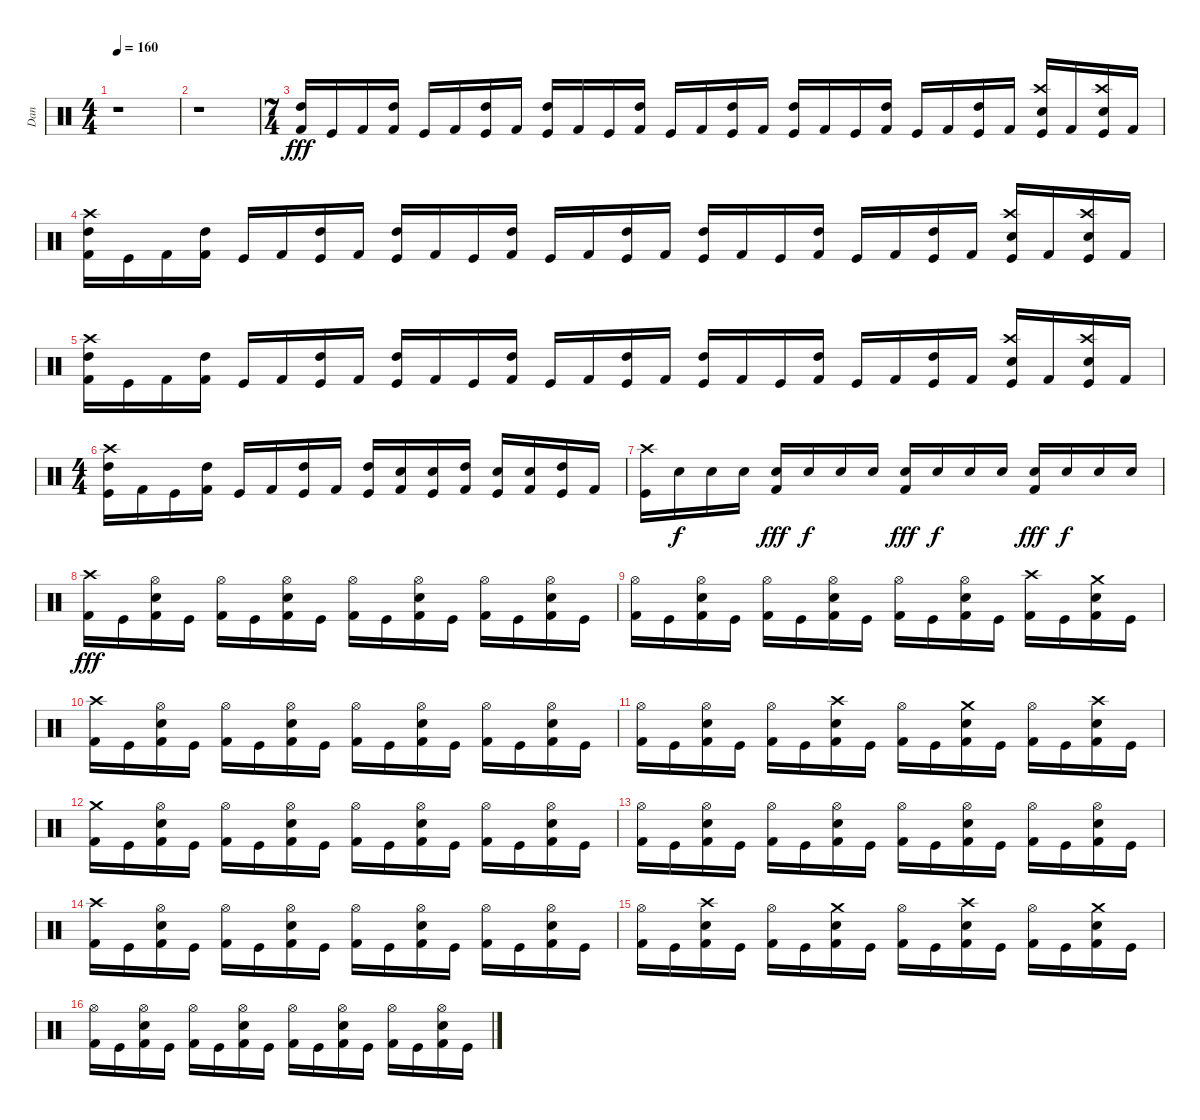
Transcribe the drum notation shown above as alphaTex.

\track ("Dan " "Dan ") {instrument percussion}
\staff {score}
\articulation defaults
\ts (4 4)
\tempo 160
\clef neutral
\ks c
r.1{dy fff} |
r.1 |
\ts (7 4)
("High Tom (hit)" "Kick (hit) 2").16 "Kick (hit)".16 "Kick (hit) 2".16 ("High Tom (hit)" "Kick (hit) 2").16 "Kick (hit)".16 "Kick (hit) 2".16 ("High Tom (hit)" "Kick (hit)").16 "Kick (hit) 2".16 ("High Tom (hit)" "Kick (hit)").16 "Kick (hit) 2".16 "Kick (hit)".16 ("High Tom (hit)" "Kick (hit) 2").16 "Kick (hit)".16 "Kick (hit) 2".16 ("High Tom (hit)" "Kick (hit)").16 "Kick (hit) 2".16 ("High Tom (hit)" "Kick (hit)").16 "Kick (hit) 2".16 "Kick (hit)".16 ("High Tom (hit)" "Kick (hit) 2").16 "Kick (hit)".16 "Kick (hit) 2".16 ("High Tom (hit)" "Kick (hit)").16 "Kick (hit) 2".16 ("Crash high (hit)" "Electric Snare (hit)" "Kick (hit)").16 "Kick (hit) 2".16 ("Crash high (hit)" "Electric Snare (hit)" "Kick (hit)").16 "Kick (hit) 2".16 |
("Crash high (hit)" "High Tom (hit)" "Kick (hit) 2").16 "Kick (hit)".16 "Kick (hit) 2".16 ("High Tom (hit)" "Kick (hit) 2").16 "Kick (hit)".16 "Kick (hit) 2".16 ("High Tom (hit)" "Kick (hit)").16 "Kick (hit) 2".16 ("High Tom (hit)" "Kick (hit)").16 "Kick (hit) 2".16 "Kick (hit)".16 ("High Tom (hit)" "Kick (hit) 2").16 "Kick (hit)".16 "Kick (hit) 2".16 ("High Tom (hit)" "Kick (hit)").16 "Kick (hit) 2".16 ("High Tom (hit)" "Kick (hit)").16 "Kick (hit) 2".16 "Kick (hit)".16 ("High Tom (hit)" "Kick (hit) 2").16 "Kick (hit)".16 "Kick (hit) 2".16 ("High Tom (hit)" "Kick (hit)").16 "Kick (hit) 2".16 ("Crash high (hit)" "Electric Snare (hit)" "Kick (hit)").16 "Kick (hit) 2".16 ("Crash high (hit)" "Electric Snare (hit)" "Kick (hit)").16 "Kick (hit) 2".16 |
("Crash high (hit)" "High Tom (hit)" "Kick (hit) 2").16 "Kick (hit)".16 "Kick (hit) 2".16 ("High Tom (hit)" "Kick (hit) 2").16 "Kick (hit)".16 "Kick (hit) 2".16 ("High Tom (hit)" "Kick (hit)").16 "Kick (hit) 2".16 ("High Tom (hit)" "Kick (hit)").16 "Kick (hit) 2".16 "Kick (hit)".16 ("High Tom (hit)" "Kick (hit) 2").16 "Kick (hit)".16 "Kick (hit) 2".16 ("High Tom (hit)" "Kick (hit)").16 "Kick (hit) 2".16 ("High Tom (hit)" "Kick (hit)").16 "Kick (hit) 2".16 "Kick (hit)".16 ("High Tom (hit)" "Kick (hit) 2").16 "Kick (hit)".16 "Kick (hit) 2".16 ("High Tom (hit)" "Kick (hit)").16 "Kick (hit) 2".16 ("Crash high (hit)" "Electric Snare (hit)" "Kick (hit)").16 "Kick (hit) 2".16 ("Crash high (hit)" "Electric Snare (hit)" "Kick (hit)").16 "Kick (hit) 2".16 |
\ts (4 4)
("Crash high (hit)" "High Tom (hit)" "Kick (hit)").16 "Kick (hit) 2".16 "Kick (hit)".16 ("High Tom (hit)" "Kick (hit) 2").16 "Kick (hit)".16 "Kick (hit) 2".16 ("High Tom (hit)" "Kick (hit)").16 "Kick (hit) 2".16 ("High Tom (hit)" "Kick (hit)").16 ("Electric Snare (hit)" "Kick (hit) 2").16 ("Electric Snare (hit)" "Kick (hit)").16 ("High Tom (hit)" "Kick (hit) 2").16 ("Electric Snare (hit)" "Kick (hit)").16 ("Electric Snare (hit)" "Kick (hit) 2").16 ("High Tom (hit)" "Kick (hit)").16 "Kick (hit) 2".16 |
("Crash high (hit)" "Kick (hit)").16 "Electric Snare (hit)".16{dy f} "Electric Snare (hit)".16 "Electric Snare (hit)".16 ("Electric Snare (hit)" "Kick (hit) 2").16{dy fff} "Electric Snare (hit)".16{dy f} "Electric Snare (hit)".16 "Electric Snare (hit)".16 ("Electric Snare (hit)" "Kick (hit) 2").16{dy fff} "Electric Snare (hit)".16{dy f} "Electric Snare (hit)".16 "Electric Snare (hit)".16 ("Electric Snare (hit)" "Kick (hit) 2").16{dy fff} "Electric Snare (hit)".16{dy f} "Electric Snare (hit)".16 "Electric Snare (hit)".16 |
("Crash high (hit)" "Kick (hit) 2").16{dy fff} "Kick (hit)".16 ("Hi-Hat (open)" "Electric Snare (hit)" "Kick (hit) 2").16 "Kick (hit)".16 ("Hi-Hat (open)" "Kick (hit) 2").16 "Kick (hit)".16 ("Hi-Hat (open)" "Electric Snare (hit)" "Kick (hit) 2").16 "Kick (hit)".16 ("Hi-Hat (open)" "Kick (hit) 2").16 "Kick (hit)".16 ("Hi-Hat (open)" "Electric Snare (hit)" "Kick (hit) 2").16 "Kick (hit)".16 ("Hi-Hat (open)" "Kick (hit) 2").16 "Kick (hit)".16 ("Hi-Hat (open)" "Electric Snare (hit)" "Kick (hit) 2").16 "Kick (hit)".16 |
("Hi-Hat (open)" "Kick (hit) 2").16 "Kick (hit)".16 ("Hi-Hat (open)" "Electric Snare (hit)" "Kick (hit) 2").16 "Kick (hit)".16 ("Hi-Hat (open)" "Kick (hit) 2").16 "Kick (hit)".16 ("Hi-Hat (open)" "Electric Snare (hit)" "Kick (hit) 2").16 "Kick (hit)".16 ("Hi-Hat (open)" "Kick (hit) 2").16 "Kick (hit)".16 ("Hi-Hat (open)" "Electric Snare (hit)" "Kick (hit) 2").16 "Kick (hit)".16 ("Crash high (hit)" "Kick (hit) 2").16 "Kick (hit)".16 ("Crash medium (hit)" "Electric Snare (hit)" "Kick (hit) 2").16 "Kick (hit)".16 |
("Crash high (hit)" "Kick (hit) 2").16 "Kick (hit)".16 ("Hi-Hat (open)" "Electric Snare (hit)" "Kick (hit) 2").16 "Kick (hit)".16 ("Hi-Hat (open)" "Kick (hit) 2").16 "Kick (hit)".16 ("Hi-Hat (open)" "Electric Snare (hit)" "Kick (hit) 2").16 "Kick (hit)".16 ("Hi-Hat (open)" "Kick (hit) 2").16 "Kick (hit)".16 ("Hi-Hat (open)" "Electric Snare (hit)" "Kick (hit) 2").16 "Kick (hit)".16 ("Hi-Hat (open)" "Kick (hit) 2").16 "Kick (hit)".16 ("Hi-Hat (open)" "Electric Snare (hit)" "Kick (hit) 2").16 "Kick (hit)".16 |
("Hi-Hat (open)" "Kick (hit) 2").16 "Kick (hit)".16 ("Hi-Hat (open)" "Electric Snare (hit)" "Kick (hit) 2").16 "Kick (hit)".16 ("Hi-Hat (open)" "Kick (hit) 2").16 "Kick (hit)".16 ("Crash high (hit)" "Electric Snare (hit)" "Kick (hit) 2").16 "Kick (hit)".16 ("Hi-Hat (open)" "Kick (hit) 2").16 "Kick (hit)".16 ("Crash medium (hit)" "Electric Snare (hit)" "Kick (hit) 2").16 "Kick (hit)".16 ("Hi-Hat (open)" "Kick (hit) 2").16 "Kick (hit)".16 ("Crash high (hit)" "Electric Snare (hit)" "Kick (hit) 2").16 "Kick (hit)".16 |
("Crash medium (hit)" "Kick (hit) 2").16 "Kick (hit)".16 ("Hi-Hat (open)" "Electric Snare (hit)" "Kick (hit) 2").16 "Kick (hit)".16 ("Hi-Hat (open)" "Kick (hit) 2").16 "Kick (hit)".16 ("Hi-Hat (open)" "Electric Snare (hit)" "Kick (hit) 2").16 "Kick (hit)".16 ("Hi-Hat (open)" "Kick (hit) 2").16 "Kick (hit)".16 ("Hi-Hat (open)" "Electric Snare (hit)" "Kick (hit) 2").16 "Kick (hit)".16 ("Hi-Hat (open)" "Kick (hit) 2").16 "Kick (hit)".16 ("Hi-Hat (open)" "Electric Snare (hit)" "Kick (hit) 2").16 "Kick (hit)".16 |
("Hi-Hat (open)" "Kick (hit) 2").16 "Kick (hit)".16 ("Hi-Hat (open)" "Electric Snare (hit)" "Kick (hit) 2").16 "Kick (hit)".16 ("Hi-Hat (open)" "Kick (hit) 2").16 "Kick (hit)".16 ("Hi-Hat (open)" "Electric Snare (hit)" "Kick (hit) 2").16 "Kick (hit)".16 ("Hi-Hat (open)" "Kick (hit) 2").16 "Kick (hit)".16 ("Hi-Hat (open)" "Electric Snare (hit)" "Kick (hit) 2").16 "Kick (hit)".16 ("Hi-Hat (open)" "Kick (hit) 2").16 "Kick (hit)".16 ("Hi-Hat (open)" "Electric Snare (hit)" "Kick (hit) 2").16 "Kick (hit)".16 |
("Crash high (hit)" "Kick (hit) 2").16 "Kick (hit)".16 ("Hi-Hat (open)" "Electric Snare (hit)" "Kick (hit) 2").16 "Kick (hit)".16 ("Hi-Hat (open)" "Kick (hit) 2").16 "Kick (hit)".16 ("Hi-Hat (open)" "Electric Snare (hit)" "Kick (hit) 2").16 "Kick (hit)".16 ("Hi-Hat (open)" "Kick (hit) 2").16 "Kick (hit)".16 ("Hi-Hat (open)" "Electric Snare (hit)" "Kick (hit) 2").16 "Kick (hit)".16 ("Hi-Hat (open)" "Kick (hit) 2").16 "Kick (hit)".16 ("Hi-Hat (open)" "Electric Snare (hit)" "Kick (hit) 2").16 "Kick (hit)".16 |
("Hi-Hat (open)" "Kick (hit) 2").16 "Kick (hit)".16 ("Crash high (hit)" "Electric Snare (hit)" "Kick (hit) 2").16 "Kick (hit)".16 ("Hi-Hat (open)" "Kick (hit) 2").16 "Kick (hit)".16 ("Crash medium (hit)" "Electric Snare (hit)" "Kick (hit) 2").16 "Kick (hit)".16 ("Hi-Hat (open)" "Kick (hit) 2").16 "Kick (hit)".16 ("Crash high (hit)" "Electric Snare (hit)" "Kick (hit) 2").16 "Kick (hit)".16 ("Hi-Hat (open)" "Kick (hit) 2").16 "Kick (hit)".16 ("Crash medium (hit)" "Electric Snare (hit)" "Kick (hit) 2").16 "Kick (hit)".16 |
("Hi-Hat (open)" "Kick (hit) 2").16 "Kick (hit)".16 ("Hi-Hat (open)" "Electric Snare (hit)" "Kick (hit) 2").16 "Kick (hit)".16 ("Hi-Hat (open)" "Kick (hit) 2").16 "Kick (hit)".16 ("Hi-Hat (open)" "Electric Snare (hit)" "Kick (hit) 2").16 "Kick (hit)".16 ("Hi-Hat (open)" "Kick (hit) 2").16 "Kick (hit)".16 ("Hi-Hat (open)" "Electric Snare (hit)" "Kick (hit) 2").16 "Kick (hit)".16 ("Hi-Hat (open)" "Kick (hit) 2").16 "Kick (hit)".16 ("Hi-Hat (open)" "Electric Snare (hit)" "Kick (hit) 2").16 "Kick (hit)".16
